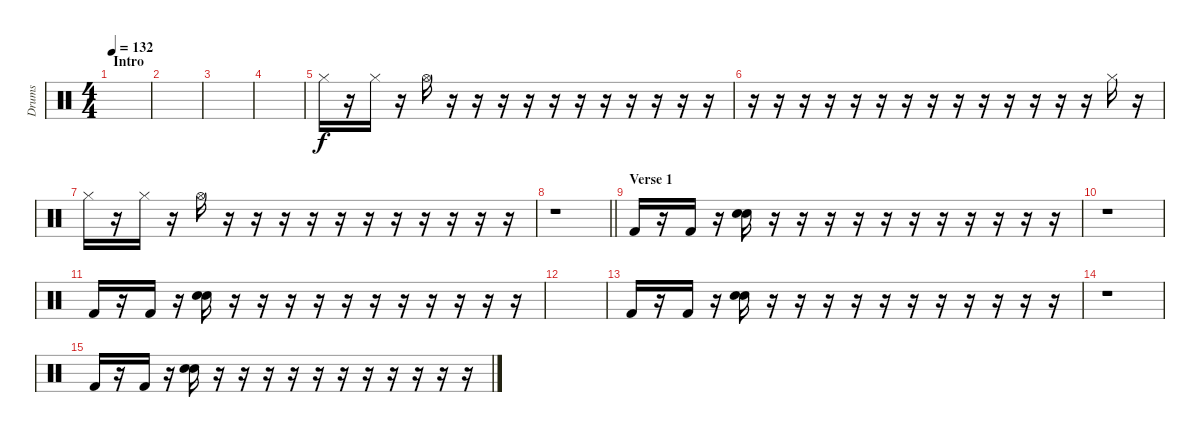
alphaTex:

\track ("Drums" "Drums") {instrument percussion}
\staff {score}
\articulation defaults
\ts (4 4)
\section ("" "Intro")
\tempo 132
\clef neutral
\ks c
|
|
|
|
"Hi-Hat (closed)".16 r.16 "Hi-Hat (closed)".16 r.16 "Hi-Hat (open)".16 r.16 r.16 r.16 r.16 r.16 r.16 r.16 r.16 r.16 r.16 r.16 |
r.16 r.16 r.16 r.16 r.16 r.16 r.16 r.16 r.16 r.16 r.16 r.16 r.16 r.16 "Hi-Hat (closed)".16 r.16 |
"Hi-Hat (closed)".16 r.16 "Hi-Hat (closed)".16 r.16 "Hi-Hat (open)".16 r.16 r.16 r.16 r.16 r.16 r.16 r.16 r.16 r.16 r.16 r.16 |
\barLineRight lightlight
r.1 |
\section ("" "Verse 1")
"Kick (hit) 2".16 r.16 "Kick (hit) 2".16 r.16 ("Snare (hit) 2" "Snare (hit) 2").16 r.16 r.16 r.16 r.16 r.16 r.16 r.16 r.16 r.16 r.16 r.16 |
r.1 |
"Kick (hit) 2".16 r.16 "Kick (hit) 2".16 r.16 ("Snare (hit) 2" "Snare (hit) 2").16 r.16 r.16 r.16 r.16 r.16 r.16 r.16 r.16 r.16 r.16 r.16 |
|
"Kick (hit) 2".16 r.16 "Kick (hit) 2".16 r.16 ("Snare (hit) 2" "Snare (hit) 2").16 r.16 r.16 r.16 r.16 r.16 r.16 r.16 r.16 r.16 r.16 r.16 |
r.1 |
"Kick (hit) 2".16 r.16 "Kick (hit) 2".16 r.16 ("Snare (hit) 2" "Snare (hit) 2").16 r.16 r.16 r.16 r.16 r.16 r.16 r.16 r.16 r.16 r.16 r.16
